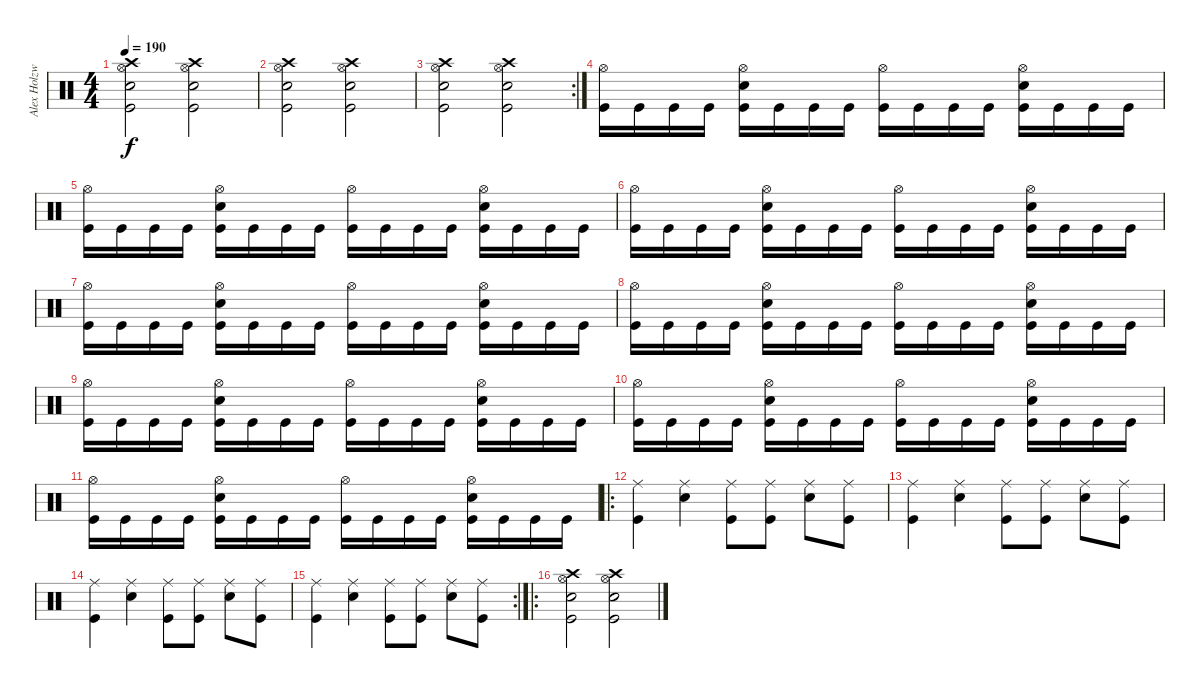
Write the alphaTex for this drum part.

\track ("Alex Holzwarth" "Alex Holzw") {instrument percussion}
\staff {score}
\articulation defaults
\ts (4 4)
\tempo 190
\clef neutral
\ks c
("Kick (hit)" "Crash high (hit)" "Electric Snare (hit)" "Hi-Hat (open)").2{dy f} ("Kick (hit)" "Crash high (hit)" "Electric Snare (hit)" "Hi-Hat (open)").2 |
("Kick (hit)" "Crash high (hit)" "Electric Snare (hit)" "Hi-Hat (open)").2 ("Kick (hit)" "Crash high (hit)" "Electric Snare (hit)" "Hi-Hat (open)").2 |
\rc 2
("Kick (hit)" "Crash high (hit)" "Electric Snare (hit)" "Hi-Hat (open)").2 ("Kick (hit)" "Crash high (hit)" "Electric Snare (hit)" "Hi-Hat (open)").2 |
("Kick (hit)" "Hi-Hat (open)").16 "Kick (hit)".16 "Kick (hit)".16 "Kick (hit)".16 ("Kick (hit)" "Electric Snare (hit)" "Hi-Hat (open)").16 "Kick (hit)".16 "Kick (hit)".16 "Kick (hit)".16 ("Kick (hit)" "Hi-Hat (open)").16 "Kick (hit)".16 "Kick (hit)".16 "Kick (hit)".16 ("Kick (hit)" "Electric Snare (hit)" "Hi-Hat (open)").16 "Kick (hit)".16 "Kick (hit)".16 "Kick (hit)".16 |
("Kick (hit)" "Hi-Hat (open)").16 "Kick (hit)".16 "Kick (hit)".16 "Kick (hit)".16 ("Kick (hit)" "Electric Snare (hit)" "Hi-Hat (open)").16 "Kick (hit)".16 "Kick (hit)".16 "Kick (hit)".16 ("Kick (hit)" "Hi-Hat (open)").16 "Kick (hit)".16 "Kick (hit)".16 "Kick (hit)".16 ("Kick (hit)" "Electric Snare (hit)" "Hi-Hat (open)").16 "Kick (hit)".16 "Kick (hit)".16 "Kick (hit)".16 |
("Kick (hit)" "Hi-Hat (open)").16 "Kick (hit)".16 "Kick (hit)".16 "Kick (hit)".16 ("Kick (hit)" "Electric Snare (hit)" "Hi-Hat (open)").16 "Kick (hit)".16 "Kick (hit)".16 "Kick (hit)".16 ("Kick (hit)" "Hi-Hat (open)").16 "Kick (hit)".16 "Kick (hit)".16 "Kick (hit)".16 ("Kick (hit)" "Electric Snare (hit)" "Hi-Hat (open)").16 "Kick (hit)".16 "Kick (hit)".16 "Kick (hit)".16 |
("Kick (hit)" "Hi-Hat (open)").16 "Kick (hit)".16 "Kick (hit)".16 "Kick (hit)".16 ("Kick (hit)" "Electric Snare (hit)" "Hi-Hat (open)").16 "Kick (hit)".16 "Kick (hit)".16 "Kick (hit)".16 ("Kick (hit)" "Hi-Hat (open)").16 "Kick (hit)".16 "Kick (hit)".16 "Kick (hit)".16 ("Kick (hit)" "Electric Snare (hit)" "Hi-Hat (open)").16 "Kick (hit)".16 "Kick (hit)".16 "Kick (hit)".16 |
("Kick (hit)" "Hi-Hat (open)").16 "Kick (hit)".16 "Kick (hit)".16 "Kick (hit)".16 ("Kick (hit)" "Electric Snare (hit)" "Hi-Hat (open)").16 "Kick (hit)".16 "Kick (hit)".16 "Kick (hit)".16 ("Kick (hit)" "Hi-Hat (open)").16 "Kick (hit)".16 "Kick (hit)".16 "Kick (hit)".16 ("Kick (hit)" "Electric Snare (hit)" "Hi-Hat (open)").16 "Kick (hit)".16 "Kick (hit)".16 "Kick (hit)".16 |
("Kick (hit)" "Hi-Hat (open)").16 "Kick (hit)".16 "Kick (hit)".16 "Kick (hit)".16 ("Kick (hit)" "Electric Snare (hit)" "Hi-Hat (open)").16 "Kick (hit)".16 "Kick (hit)".16 "Kick (hit)".16 ("Kick (hit)" "Hi-Hat (open)").16 "Kick (hit)".16 "Kick (hit)".16 "Kick (hit)".16 ("Kick (hit)" "Electric Snare (hit)" "Hi-Hat (open)").16 "Kick (hit)".16 "Kick (hit)".16 "Kick (hit)".16 |
("Kick (hit)" "Hi-Hat (open)").16 "Kick (hit)".16 "Kick (hit)".16 "Kick (hit)".16 ("Kick (hit)" "Electric Snare (hit)" "Hi-Hat (open)").16 "Kick (hit)".16 "Kick (hit)".16 "Kick (hit)".16 ("Kick (hit)" "Hi-Hat (open)").16 "Kick (hit)".16 "Kick (hit)".16 "Kick (hit)".16 ("Kick (hit)" "Electric Snare (hit)" "Hi-Hat (open)").16 "Kick (hit)".16 "Kick (hit)".16 "Kick (hit)".16 |
("Kick (hit)" "Hi-Hat (open)").16 "Kick (hit)".16 "Kick (hit)".16 "Kick (hit)".16 ("Kick (hit)" "Electric Snare (hit)" "Hi-Hat (open)").16 "Kick (hit)".16 "Kick (hit)".16 "Kick (hit)".16 ("Kick (hit)" "Hi-Hat (open)").16 "Kick (hit)".16 "Kick (hit)".16 "Kick (hit)".16 ("Kick (hit)" "Electric Snare (hit)" "Hi-Hat (open)").16 "Kick (hit)".16 "Kick (hit)".16 "Kick (hit)".16 |
\ro
("Kick (hit)" "Ride (middle)").4 ("Electric Snare (hit)" "Ride (middle)").4 ("Kick (hit)" "Ride (middle)").8 ("Kick (hit)" "Ride (middle)").8 ("Electric Snare (hit)" "Ride (middle)").8 ("Kick (hit)" "Ride (middle)").8 |
("Kick (hit)" "Ride (middle)").4 ("Electric Snare (hit)" "Ride (middle)").4 ("Kick (hit)" "Ride (middle)").8 ("Kick (hit)" "Ride (middle)").8 ("Electric Snare (hit)" "Ride (middle)").8 ("Kick (hit)" "Ride (middle)").8 |
("Kick (hit)" "Ride (middle)").4 ("Electric Snare (hit)" "Ride (middle)").4 ("Kick (hit)" "Ride (middle)").8 ("Kick (hit)" "Ride (middle)").8 ("Electric Snare (hit)" "Ride (middle)").8 ("Kick (hit)" "Ride (middle)").8 |
\rc 2
("Kick (hit)" "Ride (middle)").4 ("Electric Snare (hit)" "Ride (middle)").4 ("Kick (hit)" "Ride (middle)").8 ("Kick (hit)" "Ride (middle)").8 ("Electric Snare (hit)" "Ride (middle)").8 ("Kick (hit)" "Ride (middle)").8 |
\ro
("Kick (hit)" "Crash high (hit)" "Electric Snare (hit)" "Hi-Hat (open)").2 ("Kick (hit)" "Crash high (hit)" "Electric Snare (hit)" "Hi-Hat (open)").2
